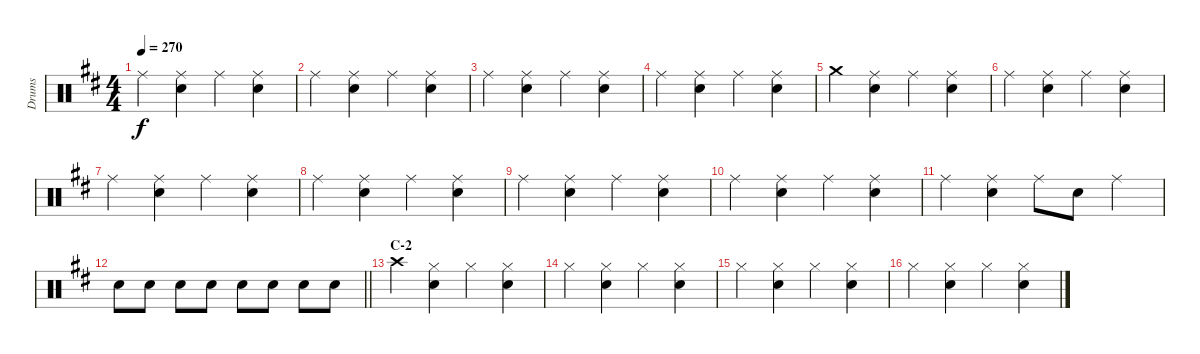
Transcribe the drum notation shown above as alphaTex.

\track ("Drums" "Drums") {instrument percussion}
\staff {score}
\articulation defaults
\ts (4 4)
\tempo 270
\clef neutral
\ks d "Ride (middle)".4{dy f}
("Ride (middle)" "Snare (hit) 2").4 "Ride (middle)".4 ("Ride (middle)" "Snare (hit) 2").4 |
"Ride (middle)".4 ("Ride (middle)" "Snare (hit) 2").4 "Ride (middle)".4 ("Ride (middle)" "Snare (hit) 2").4 |
"Ride (middle)".4 ("Ride (middle)" "Snare (hit) 2").4 "Ride (middle)".4 ("Ride (middle)" "Snare (hit) 2").4 |
"Ride (middle)".4 ("Ride (middle)" "Snare (hit) 2").4 "Ride (middle)".4 ("Ride (middle)" "Snare (hit) 2").4 |
"Crash medium (hit)".4 ("Ride (middle)" "Snare (hit) 2").4 "Ride (middle)".4 ("Ride (middle)" "Snare (hit) 2").4 |
"Ride (middle)".4 ("Ride (middle)" "Snare (hit) 2").4 "Ride (middle)".4 ("Ride (middle)" "Snare (hit) 2").4 |
"Ride (middle)".4 ("Ride (middle)" "Snare (hit) 2").4 "Ride (middle)".4 ("Ride (middle)" "Snare (hit) 2").4 |
"Ride (middle)".4 ("Ride (middle)" "Snare (hit) 2").4 "Ride (middle)".4 ("Ride (middle)" "Snare (hit) 2").4 |
"Ride (middle)".4 ("Ride (middle)" "Snare (hit) 2").4 "Ride (middle)".4 ("Ride (middle)" "Snare (hit) 2").4 |
"Ride (middle)".4 ("Ride (middle)" "Snare (hit) 2").4 "Ride (middle)".4 ("Ride (middle)" "Snare (hit) 2").4 |
"Ride (middle)".4 ("Ride (middle)" "Snare (hit) 2").4 "Ride (middle)".8 "Snare (hit) 2".8 "Ride (middle)".4 |
\barLineRight lightlight "Snare (hit) 2".8 "Snare (hit) 2".8 "Snare (hit) 2".8 "Snare (hit) 2".8 "Snare (hit) 2".8 "Snare (hit) 2".8 "Snare (hit) 2".8 "Snare (hit) 2".8
|
\section ("" "C-2")
"Crash high (hit)".4 ("Hi-Hat (closed)" "Snare (hit) 2").4 "Hi-Hat (closed)".4 ("Hi-Hat (closed)" "Snare (hit) 2").4 |
"Hi-Hat (closed)".4 ("Hi-Hat (closed)" "Snare (hit) 2").4 "Hi-Hat (closed)".4 ("Hi-Hat (closed)" "Snare (hit) 2").4 |
"Hi-Hat (closed)".4 ("Hi-Hat (closed)" "Snare (hit) 2").4 "Hi-Hat (closed)".4 ("Hi-Hat (closed)" "Snare (hit) 2").4 |
"Hi-Hat (closed)".4 ("Hi-Hat (closed)" "Snare (hit) 2").4 "Hi-Hat (closed)".4 ("Hi-Hat (closed)" "Snare (hit) 2").4
